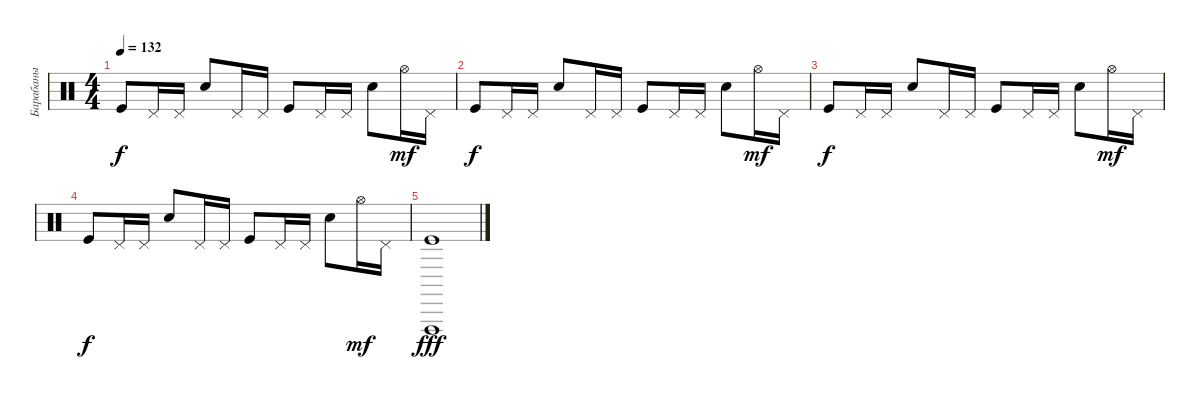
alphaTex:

\track ("Барабаны" "Барабаны") {instrument percussion}
\staff {score}
\articulation defaults
\ts (4 4)
\tempo 132
\clef neutral
\ks c "Kick (hit)".8{dy f} "Pedal Hi-Hat (hit)".16 "Pedal Hi-Hat (hit)".16 "Snare (hit) 2".8 "Pedal Hi-Hat (hit)".16 "Pedal Hi-Hat (hit)".16 "Kick (hit)".8 "Pedal Hi-Hat (hit)".16 "Pedal Hi-Hat (hit)".16 "Snare (hit) 2".8 "Hi-Hat (open)".16{dy mf} "Pedal Hi-Hat (hit)".16
|
"Kick (hit)".8{dy f} "Pedal Hi-Hat (hit)".16 "Pedal Hi-Hat (hit)".16 "Snare (hit) 2".8 "Pedal Hi-Hat (hit)".16 "Pedal Hi-Hat (hit)".16 "Kick (hit)".8 "Pedal Hi-Hat (hit)".16 "Pedal Hi-Hat (hit)".16 "Snare (hit) 2".8 "Hi-Hat (open)".16{dy mf} "Pedal Hi-Hat (hit)".16 |
"Kick (hit)".8{dy f} "Pedal Hi-Hat (hit)".16 "Pedal Hi-Hat (hit)".16 "Snare (hit) 2".8 "Pedal Hi-Hat (hit)".16 "Pedal Hi-Hat (hit)".16 "Kick (hit)".8 "Pedal Hi-Hat (hit)".16 "Pedal Hi-Hat (hit)".16 "Snare (hit) 2".8 "Hi-Hat (open)".16{dy mf} "Pedal Hi-Hat (hit)".16 |
"Kick (hit)".8{dy f} "Pedal Hi-Hat (hit)".16 "Pedal Hi-Hat (hit)".16 "Snare (hit) 2".8 "Pedal Hi-Hat (hit)".16 "Pedal Hi-Hat (hit)".16 "Kick (hit)".8 "Pedal Hi-Hat (hit)".16 "Pedal Hi-Hat (hit)".16 "Snare (hit) 2".8 "Hi-Hat (open)".16{dy mf} "Pedal Hi-Hat (hit)".16 |
("Kick (hit)" "Vibraslap (hit)").1{dy fff}
